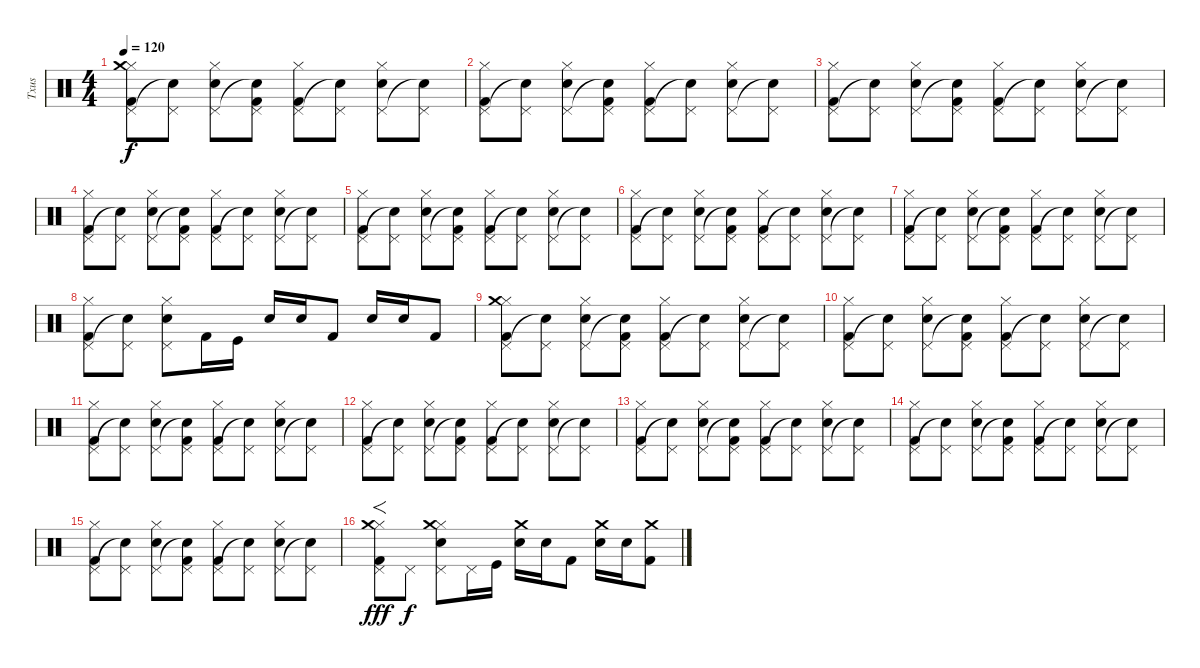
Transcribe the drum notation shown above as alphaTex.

\track ("Txus" "Txus") {instrument percussion}
\staff {score}
\articulation defaults
\ts (4 4)
\tempo 120
\clef neutral
\ks c
("Hi-Hat (closed)" "Pedal Hi-Hat (hit)" "Crash medium (hit)" "Kick (hit) 2").8{dy f} ("Pedal Hi-Hat (hit)" "Snare (hit)"{t}).8 ("Hi-Hat (closed)" "Pedal Hi-Hat (hit)" "Snare (hit) 2").8 ("Pedal Hi-Hat (hit)" "Snare (hit)"{t} "Kick (hit) 2").8 ("Hi-Hat (closed)" "Pedal Hi-Hat (hit)" "Kick (hit) 2").8 ("Pedal Hi-Hat (hit)" "Snare (hit)"{t}).8 ("Hi-Hat (closed)" "Pedal Hi-Hat (hit)" "Snare (hit) 2").8 ("Pedal Hi-Hat (hit)" "Snare (hit) 2"{t}).8 |
("Hi-Hat (closed)" "Pedal Hi-Hat (hit)" "Kick (hit) 2").8 ("Pedal Hi-Hat (hit)" "Snare (hit)"{t}).8 ("Hi-Hat (closed)" "Pedal Hi-Hat (hit)" "Snare (hit) 2").8 ("Pedal Hi-Hat (hit)" "Snare (hit)"{t} "Kick (hit) 2").8 ("Hi-Hat (closed)" "Pedal Hi-Hat (hit)" "Kick (hit) 2").8 ("Pedal Hi-Hat (hit)" "Snare (hit)"{t}).8 ("Hi-Hat (closed)" "Pedal Hi-Hat (hit)" "Snare (hit) 2").8 ("Pedal Hi-Hat (hit)" "Snare (hit) 2"{t}).8 |
("Hi-Hat (closed)" "Pedal Hi-Hat (hit)" "Kick (hit) 2").8 ("Pedal Hi-Hat (hit)" "Snare (hit)"{t}).8 ("Hi-Hat (closed)" "Pedal Hi-Hat (hit)" "Snare (hit) 2").8 ("Pedal Hi-Hat (hit)" "Snare (hit)"{t} "Kick (hit) 2").8 ("Hi-Hat (closed)" "Pedal Hi-Hat (hit)" "Kick (hit) 2").8 ("Pedal Hi-Hat (hit)" "Snare (hit)"{t}).8 ("Hi-Hat (closed)" "Pedal Hi-Hat (hit)" "Snare (hit) 2").8 ("Pedal Hi-Hat (hit)" "Snare (hit) 2"{t}).8 |
("Hi-Hat (closed)" "Pedal Hi-Hat (hit)" "Kick (hit) 2").8 ("Pedal Hi-Hat (hit)" "Snare (hit)"{t}).8 ("Hi-Hat (closed)" "Pedal Hi-Hat (hit)" "Snare (hit) 2").8 ("Pedal Hi-Hat (hit)" "Snare (hit)"{t} "Kick (hit) 2").8 ("Hi-Hat (closed)" "Pedal Hi-Hat (hit)" "Kick (hit) 2").8 ("Pedal Hi-Hat (hit)" "Snare (hit)"{t}).8 ("Hi-Hat (closed)" "Pedal Hi-Hat (hit)" "Snare (hit) 2").8 ("Pedal Hi-Hat (hit)" "Snare (hit) 2"{t}).8 |
("Hi-Hat (closed)" "Pedal Hi-Hat (hit)" "Kick (hit) 2").8 ("Pedal Hi-Hat (hit)" "Snare (hit)"{t}).8 ("Hi-Hat (closed)" "Pedal Hi-Hat (hit)" "Snare (hit) 2").8 ("Pedal Hi-Hat (hit)" "Snare (hit)"{t} "Kick (hit) 2").8 ("Hi-Hat (closed)" "Pedal Hi-Hat (hit)" "Kick (hit) 2").8 ("Pedal Hi-Hat (hit)" "Snare (hit)"{t}).8 ("Hi-Hat (closed)" "Pedal Hi-Hat (hit)" "Snare (hit) 2").8 ("Pedal Hi-Hat (hit)" "Snare (hit) 2"{t}).8 |
("Hi-Hat (closed)" "Pedal Hi-Hat (hit)" "Kick (hit) 2").8 ("Pedal Hi-Hat (hit)" "Snare (hit)"{t}).8 ("Hi-Hat (closed)" "Pedal Hi-Hat (hit)" "Snare (hit) 2").8 ("Pedal Hi-Hat (hit)" "Snare (hit)"{t} "Kick (hit) 2").8 ("Hi-Hat (closed)" "Pedal Hi-Hat (hit)" "Kick (hit) 2").8 ("Pedal Hi-Hat (hit)" "Snare (hit)"{t}).8 ("Hi-Hat (closed)" "Pedal Hi-Hat (hit)" "Snare (hit) 2").8 ("Pedal Hi-Hat (hit)" "Snare (hit) 2"{t}).8 |
("Hi-Hat (closed)" "Pedal Hi-Hat (hit)" "Kick (hit) 2").8 ("Pedal Hi-Hat (hit)" "Snare (hit)"{t}).8 ("Hi-Hat (closed)" "Pedal Hi-Hat (hit)" "Snare (hit) 2").8 ("Pedal Hi-Hat (hit)" "Snare (hit)"{t} "Kick (hit) 2").8 ("Hi-Hat (closed)" "Pedal Hi-Hat (hit)" "Kick (hit) 2").8 ("Pedal Hi-Hat (hit)" "Snare (hit)"{t}).8 ("Hi-Hat (closed)" "Pedal Hi-Hat (hit)" "Snare (hit) 2").8 ("Pedal Hi-Hat (hit)" "Snare (hit) 2"{t}).8 |
("Hi-Hat (closed)" "Pedal Hi-Hat (hit)" "Kick (hit) 2").8 ("Pedal Hi-Hat (hit)" "Snare (hit)"{t}).8 ("Hi-Hat (closed)" "Pedal Hi-Hat (hit)" "Snare (hit) 2").8 "Kick (hit) 2".16 "Kick (hit)".16 "Snare (hit) 2".16 "Snare (hit) 2".16 "Kick (hit) 2".8 "Snare (hit) 2".16 "Snare (hit) 2".16 "Kick (hit) 2".8 |
("Hi-Hat (closed)" "Pedal Hi-Hat (hit)" "Crash medium (hit)" "Kick (hit) 2").8 ("Pedal Hi-Hat (hit)" "Snare (hit)"{t}).8 ("Hi-Hat (closed)" "Pedal Hi-Hat (hit)" "Snare (hit) 2").8 ("Pedal Hi-Hat (hit)" "Snare (hit)"{t} "Kick (hit) 2").8 ("Hi-Hat (closed)" "Pedal Hi-Hat (hit)" "Kick (hit) 2").8 ("Pedal Hi-Hat (hit)" "Snare (hit)"{t}).8 ("Hi-Hat (closed)" "Pedal Hi-Hat (hit)" "Snare (hit) 2").8 ("Pedal Hi-Hat (hit)" "Snare (hit) 2"{t}).8 |
("Hi-Hat (closed)" "Pedal Hi-Hat (hit)" "Kick (hit) 2").8 ("Pedal Hi-Hat (hit)" "Snare (hit)"{t}).8 ("Hi-Hat (closed)" "Pedal Hi-Hat (hit)" "Snare (hit) 2").8 ("Pedal Hi-Hat (hit)" "Snare (hit)"{t} "Kick (hit) 2").8 ("Hi-Hat (closed)" "Pedal Hi-Hat (hit)" "Kick (hit) 2").8 ("Pedal Hi-Hat (hit)" "Snare (hit)"{t}).8 ("Hi-Hat (closed)" "Pedal Hi-Hat (hit)" "Snare (hit) 2").8 ("Pedal Hi-Hat (hit)" "Snare (hit) 2"{t}).8 |
("Hi-Hat (closed)" "Pedal Hi-Hat (hit)" "Kick (hit) 2").8 ("Pedal Hi-Hat (hit)" "Snare (hit)"{t}).8 ("Hi-Hat (closed)" "Pedal Hi-Hat (hit)" "Snare (hit) 2").8 ("Pedal Hi-Hat (hit)" "Snare (hit)"{t} "Kick (hit) 2").8 ("Hi-Hat (closed)" "Pedal Hi-Hat (hit)" "Kick (hit) 2").8 ("Pedal Hi-Hat (hit)" "Snare (hit)"{t}).8 ("Hi-Hat (closed)" "Pedal Hi-Hat (hit)" "Snare (hit) 2").8 ("Pedal Hi-Hat (hit)" "Snare (hit) 2"{t}).8 |
("Hi-Hat (closed)" "Pedal Hi-Hat (hit)" "Kick (hit) 2").8 ("Pedal Hi-Hat (hit)" "Snare (hit)"{t}).8 ("Hi-Hat (closed)" "Pedal Hi-Hat (hit)" "Snare (hit) 2").8 ("Pedal Hi-Hat (hit)" "Snare (hit)"{t} "Kick (hit) 2").8 ("Hi-Hat (closed)" "Pedal Hi-Hat (hit)" "Kick (hit) 2").8 ("Pedal Hi-Hat (hit)" "Snare (hit)"{t}).8 ("Hi-Hat (closed)" "Pedal Hi-Hat (hit)" "Snare (hit) 2").8 ("Pedal Hi-Hat (hit)" "Snare (hit) 2"{t}).8 |
("Hi-Hat (closed)" "Pedal Hi-Hat (hit)" "Kick (hit) 2").8 ("Pedal Hi-Hat (hit)" "Snare (hit)"{t}).8 ("Hi-Hat (closed)" "Pedal Hi-Hat (hit)" "Snare (hit) 2").8 ("Pedal Hi-Hat (hit)" "Snare (hit)"{t} "Kick (hit) 2").8 ("Hi-Hat (closed)" "Pedal Hi-Hat (hit)" "Kick (hit) 2").8 ("Pedal Hi-Hat (hit)" "Snare (hit)"{t}).8 ("Hi-Hat (closed)" "Pedal Hi-Hat (hit)" "Snare (hit) 2").8 ("Pedal Hi-Hat (hit)" "Snare (hit) 2"{t}).8 |
("Hi-Hat (closed)" "Pedal Hi-Hat (hit)" "Kick (hit) 2").8 ("Pedal Hi-Hat (hit)" "Snare (hit)"{t}).8 ("Hi-Hat (closed)" "Pedal Hi-Hat (hit)" "Snare (hit) 2").8 ("Pedal Hi-Hat (hit)" "Snare (hit)"{t} "Kick (hit) 2").8 ("Hi-Hat (closed)" "Pedal Hi-Hat (hit)" "Kick (hit) 2").8 ("Pedal Hi-Hat (hit)" "Snare (hit)"{t}).8 ("Hi-Hat (closed)" "Pedal Hi-Hat (hit)" "Snare (hit) 2").8 ("Pedal Hi-Hat (hit)" "Snare (hit) 2"{t}).8 |
("Hi-Hat (closed)" "Pedal Hi-Hat (hit)" "Kick (hit) 2").8 ("Pedal Hi-Hat (hit)" "Snare (hit)"{t}).8 ("Hi-Hat (closed)" "Pedal Hi-Hat (hit)" "Snare (hit) 2").8 ("Pedal Hi-Hat (hit)" "Snare (hit)"{t} "Kick (hit) 2").8 ("Hi-Hat (closed)" "Pedal Hi-Hat (hit)" "Kick (hit) 2").8 ("Pedal Hi-Hat (hit)" "Snare (hit)"{t}).8 ("Hi-Hat (closed)" "Pedal Hi-Hat (hit)" "Snare (hit) 2").8 ("Pedal Hi-Hat (hit)" "Snare (hit) 2"{t}).8 |
("Hi-Hat (closed)" "Pedal Hi-Hat (hit)" "Crash medium (hit)" "Kick (hit) 2").8{f dy fff} "Pedal Hi-Hat (hit)".8{dy f} ("Hi-Hat (closed)" "Pedal Hi-Hat (hit)" "Crash medium (hit)" "Snare (hit) 2").8 "Pedal Hi-Hat (hit)".16 "Kick (hit)".16 ("Crash medium (hit)" "Snare (hit) 2").16 "Snare (hit) 2".16 "Kick (hit) 2".8 ("Crash medium (hit)" "Snare (hit) 2").16 "Snare (hit) 2".16 ("Crash medium (hit)" "Kick (hit) 2").8
